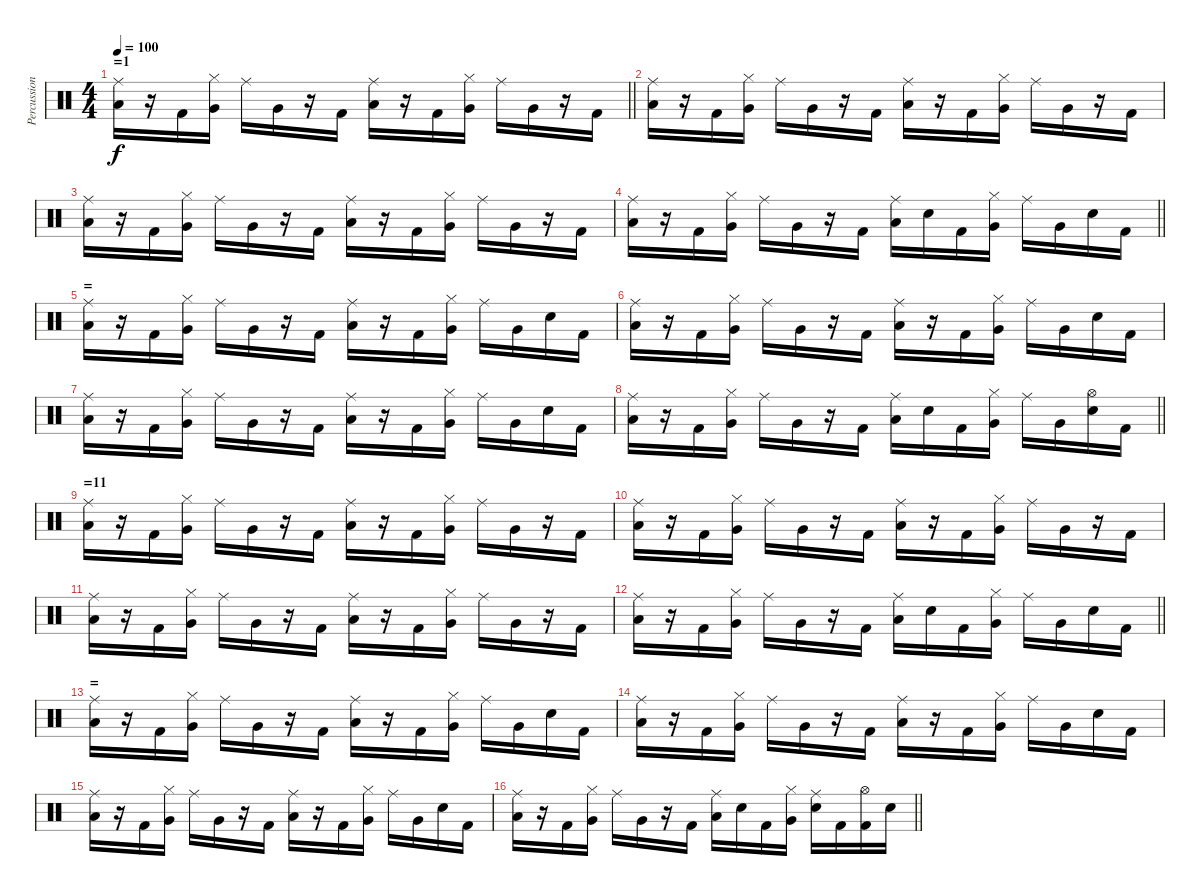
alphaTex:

\track ("Percussion" "Percussion") {instrument percussion}
\staff {score}
\articulation defaults
\ts (4 4)
\section ("" "=1")
\tempo 100
\clef neutral
\barLineRight lightlight
\ks c
("Low Floor Tom (hit)" "Ride (middle)").16{dy f} r.16 "Kick (hit) 2".16 ("Very Low Tom (hit)" "Hi-Hat (closed)").16 "Ride (middle)".16 "Very Low Tom (hit)".16 r.16 "Kick (hit) 2".16 ("Low Floor Tom (hit)" "Ride (middle)").16 r.16 "Kick (hit) 2".16 ("Very Low Tom (hit)" "Hi-Hat (closed)").16 "Ride (middle)".16 "Very Low Tom (hit)".16 r.16 "Kick (hit) 2".16 |
("Low Floor Tom (hit)" "Ride (middle)").16 r.16 "Kick (hit) 2".16 ("Very Low Tom (hit)" "Hi-Hat (closed)").16 "Ride (middle)".16 "Very Low Tom (hit)".16 r.16 "Kick (hit) 2".16 ("Low Floor Tom (hit)" "Ride (middle)").16 r.16 "Kick (hit) 2".16 ("Very Low Tom (hit)" "Hi-Hat (closed)").16 "Ride (middle)".16 "Very Low Tom (hit)".16 r.16 "Kick (hit) 2".16 |
("Low Floor Tom (hit)" "Ride (middle)").16 r.16 "Kick (hit) 2".16 ("Very Low Tom (hit)" "Hi-Hat (closed)").16 "Ride (middle)".16 "Very Low Tom (hit)".16 r.16 "Kick (hit) 2".16 ("Low Floor Tom (hit)" "Ride (middle)").16 r.16 "Kick (hit) 2".16 ("Very Low Tom (hit)" "Hi-Hat (closed)").16 "Ride (middle)".16 "Very Low Tom (hit)".16 r.16 "Kick (hit) 2".16 |
\barLineRight lightlight
("Low Floor Tom (hit)" "Ride (middle)").16 r.16 "Kick (hit) 2".16 ("Very Low Tom (hit)" "Hi-Hat (closed)").16 "Ride (middle)".16 "Very Low Tom (hit)".16 r.16 "Kick (hit) 2".16 ("Low Floor Tom (hit)" "Ride (middle)").16 "Electric Snare (hit)".16 "Kick (hit) 2".16 ("Very Low Tom (hit)" "Hi-Hat (closed)").16 "Ride (middle)".16 "Very Low Tom (hit)".16 "Electric Snare (hit)".16 "Kick (hit) 2".16 |
\section ("" "=")
("Low Floor Tom (hit)" "Ride (middle)").16 r.16 "Kick (hit) 2".16 ("Very Low Tom (hit)" "Hi-Hat (closed)").16 "Ride (middle)".16 "Very Low Tom (hit)".16 r.16 "Kick (hit) 2".16 ("Low Floor Tom (hit)" "Ride (middle)").16 r.16 "Kick (hit) 2".16 ("Very Low Tom (hit)" "Hi-Hat (closed)").16 "Ride (middle)".16 "Very Low Tom (hit)".16 "Electric Snare (hit)".16 "Kick (hit) 2".16 |
("Low Floor Tom (hit)" "Ride (middle)").16 r.16 "Kick (hit) 2".16 ("Very Low Tom (hit)" "Hi-Hat (closed)").16 "Ride (middle)".16 "Very Low Tom (hit)".16 r.16 "Kick (hit) 2".16 ("Low Floor Tom (hit)" "Ride (middle)").16 r.16 "Kick (hit) 2".16 ("Very Low Tom (hit)" "Hi-Hat (closed)").16 "Ride (middle)".16 "Very Low Tom (hit)".16 "Electric Snare (hit)".16 "Kick (hit) 2".16 |
("Low Floor Tom (hit)" "Ride (middle)").16 r.16 "Kick (hit) 2".16 ("Very Low Tom (hit)" "Hi-Hat (closed)").16 "Ride (middle)".16 "Very Low Tom (hit)".16 r.16 "Kick (hit) 2".16 ("Low Floor Tom (hit)" "Ride (middle)").16 r.16 "Kick (hit) 2".16 ("Very Low Tom (hit)" "Hi-Hat (closed)").16 "Ride (middle)".16 "Very Low Tom (hit)".16 "Electric Snare (hit)".16 "Kick (hit) 2".16 |
\barLineRight lightlight
("Low Floor Tom (hit)" "Ride (middle)").16 r.16 "Kick (hit) 2".16 ("Very Low Tom (hit)" "Hi-Hat (closed)").16 "Ride (middle)".16 "Very Low Tom (hit)".16 r.16 "Kick (hit) 2".16 ("Low Floor Tom (hit)" "Ride (middle)").16 "Electric Snare (hit)".16 "Kick (hit) 2".16 ("Very Low Tom (hit)" "Hi-Hat (closed)").16 "Ride (middle)".16 "Very Low Tom (hit)".16 ("Electric Snare (hit)" "Hi-Hat (open)").16 "Kick (hit) 2".16 |
\section ("" "=11")
("Low Floor Tom (hit)" "Ride (middle)").16 r.16 "Kick (hit) 2".16 ("Very Low Tom (hit)" "Hi-Hat (closed)").16 "Ride (middle)".16 "Very Low Tom (hit)".16 r.16 "Kick (hit) 2".16 ("Low Floor Tom (hit)" "Ride (middle)").16 r.16 "Kick (hit) 2".16 ("Very Low Tom (hit)" "Hi-Hat (closed)").16 "Ride (middle)".16 "Very Low Tom (hit)".16 r.16 "Kick (hit) 2".16 |
("Low Floor Tom (hit)" "Ride (middle)").16 r.16 "Kick (hit) 2".16 ("Very Low Tom (hit)" "Hi-Hat (closed)").16 "Ride (middle)".16 "Very Low Tom (hit)".16 r.16 "Kick (hit) 2".16 ("Low Floor Tom (hit)" "Ride (middle)").16 r.16 "Kick (hit) 2".16 ("Very Low Tom (hit)" "Hi-Hat (closed)").16 "Ride (middle)".16 "Very Low Tom (hit)".16 r.16 "Kick (hit) 2".16 |
("Low Floor Tom (hit)" "Ride (middle)").16 r.16 "Kick (hit) 2".16 ("Very Low Tom (hit)" "Hi-Hat (closed)").16 "Ride (middle)".16 "Very Low Tom (hit)".16 r.16 "Kick (hit) 2".16 ("Low Floor Tom (hit)" "Ride (middle)").16 r.16 "Kick (hit) 2".16 ("Very Low Tom (hit)" "Hi-Hat (closed)").16 "Ride (middle)".16 "Very Low Tom (hit)".16 r.16 "Kick (hit) 2".16 |
\barLineRight lightlight
("Low Floor Tom (hit)" "Ride (middle)").16 r.16 "Kick (hit) 2".16 ("Very Low Tom (hit)" "Hi-Hat (closed)").16 "Ride (middle)".16 "Very Low Tom (hit)".16 r.16 "Kick (hit) 2".16 ("Low Floor Tom (hit)" "Ride (middle)").16 "Electric Snare (hit)".16 "Kick (hit) 2".16 ("Very Low Tom (hit)" "Hi-Hat (closed)").16 "Ride (middle)".16 "Very Low Tom (hit)".16 "Electric Snare (hit)".16 "Kick (hit) 2".16 |
\section ("" "=")
("Low Floor Tom (hit)" "Ride (middle)").16 r.16 "Kick (hit) 2".16 ("Very Low Tom (hit)" "Hi-Hat (closed)").16 "Ride (middle)".16 "Very Low Tom (hit)".16 r.16 "Kick (hit) 2".16 ("Low Floor Tom (hit)" "Ride (middle)").16 r.16 "Kick (hit) 2".16 ("Very Low Tom (hit)" "Hi-Hat (closed)").16 "Ride (middle)".16 "Very Low Tom (hit)".16 "Electric Snare (hit)".16 "Kick (hit) 2".16 |
("Low Floor Tom (hit)" "Ride (middle)").16 r.16 "Kick (hit) 2".16 ("Very Low Tom (hit)" "Hi-Hat (closed)").16 "Ride (middle)".16 "Very Low Tom (hit)".16 r.16 "Kick (hit) 2".16 ("Low Floor Tom (hit)" "Ride (middle)").16 r.16 "Kick (hit) 2".16 ("Very Low Tom (hit)" "Hi-Hat (closed)").16 "Ride (middle)".16 "Very Low Tom (hit)".16 "Electric Snare (hit)".16 "Kick (hit) 2".16 |
("Low Floor Tom (hit)" "Ride (middle)").16 r.16 "Kick (hit) 2".16 ("Very Low Tom (hit)" "Hi-Hat (closed)").16 "Ride (middle)".16 "Very Low Tom (hit)".16 r.16 "Kick (hit) 2".16 ("Low Floor Tom (hit)" "Ride (middle)").16 r.16 "Kick (hit) 2".16 ("Very Low Tom (hit)" "Hi-Hat (closed)").16 "Ride (middle)".16 "Very Low Tom (hit)".16 "Electric Snare (hit)".16 "Kick (hit) 2".16 |
\barLineRight lightlight
("Low Floor Tom (hit)" "Ride (middle)").16 r.16 "Kick (hit) 2".16 ("Very Low Tom (hit)" "Hi-Hat (closed)").16 "Ride (middle)".16 "Very Low Tom (hit)".16 r.16 "Kick (hit) 2".16 ("Low Floor Tom (hit)" "Ride (middle)").16 "Electric Snare (hit)".16 "Kick (hit) 2".16 ("Very Low Tom (hit)" "Hi-Hat (closed)").16 ("Ride (middle)" "Electric Snare (hit)").16 "Kick (hit) 2".16 ("Kick (hit) 2" "Hi-Hat (open)").16 "Electric Snare (hit)".16
